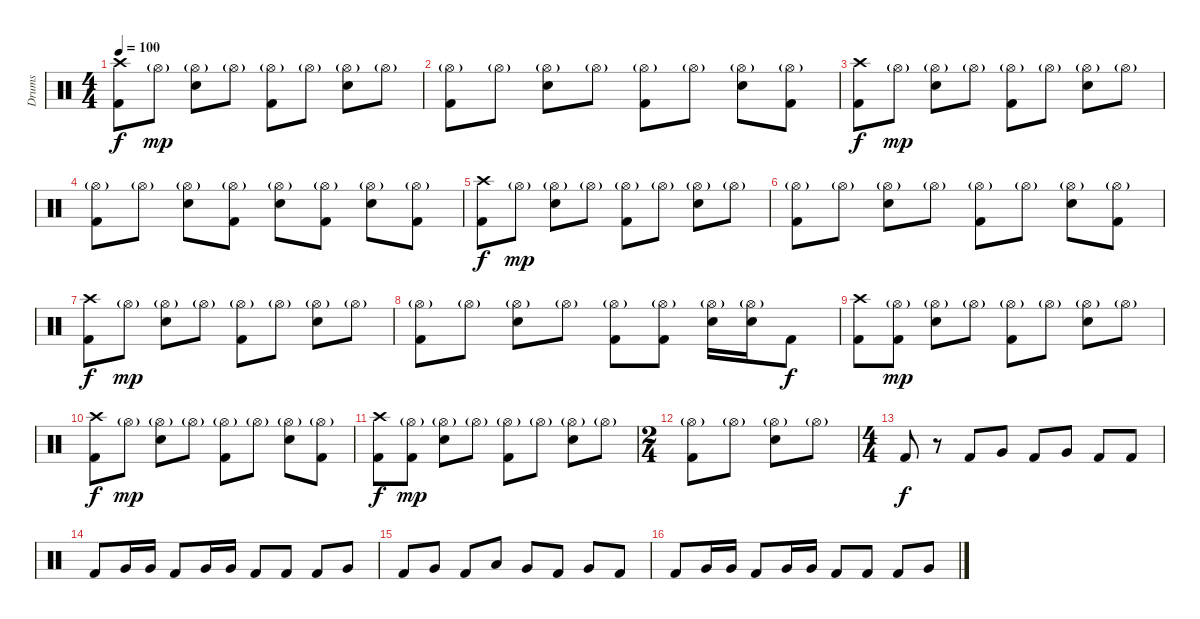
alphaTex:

\track ("Drums" "Drums") {instrument percussion}
\staff {score}
\articulation defaults
\ts (4 4)
\tempo 100
\clef neutral
\ks c
("Crash high (hit)" "Kick (hit) 2").8{dy f} "Hi-Hat (open)"{g}.8{dy mp} ("Snare (hit) 2" "Hi-Hat (open)"{g}).8 "Hi-Hat (open)"{g}.8 ("Hi-Hat (open)"{g} "Kick (hit) 2").8 "Hi-Hat (open)"{g}.8 ("Snare (hit) 2" "Hi-Hat (open)"{g}).8 "Hi-Hat (open)"{g}.8 |
("Hi-Hat (open)"{g} "Kick (hit) 2").8 "Hi-Hat (open)"{g}.8 ("Snare (hit) 2" "Hi-Hat (open)"{g}).8 "Hi-Hat (open)"{g}.8 ("Hi-Hat (open)"{g} "Kick (hit) 2").8 "Hi-Hat (open)"{g}.8 ("Snare (hit) 2" "Hi-Hat (open)"{g}).8 ("Hi-Hat (open)"{g} "Kick (hit) 2").8 |
("Crash high (hit)" "Kick (hit) 2").8{dy f} "Hi-Hat (open)"{g}.8{dy mp} ("Snare (hit) 2" "Hi-Hat (open)"{g}).8 "Hi-Hat (open)"{g}.8 ("Hi-Hat (open)"{g} "Kick (hit) 2").8 "Hi-Hat (open)"{g}.8 ("Snare (hit) 2" "Hi-Hat (open)"{g}).8 "Hi-Hat (open)"{g}.8 |
("Hi-Hat (open)"{g} "Kick (hit) 2").8 "Hi-Hat (open)"{g}.8 ("Snare (hit) 2" "Hi-Hat (open)"{g}).8 ("Hi-Hat (open)"{g} "Kick (hit) 2").8 ("Snare (hit) 2" "Hi-Hat (open)"{g}).8 ("Hi-Hat (open)"{g} "Kick (hit) 2").8 ("Snare (hit) 2" "Hi-Hat (open)"{g}).8 ("Hi-Hat (open)"{g} "Kick (hit) 2").8 |
("Crash high (hit)" "Kick (hit) 2").8{dy f} "Hi-Hat (open)"{g}.8{dy mp} ("Snare (hit) 2" "Hi-Hat (open)"{g}).8 "Hi-Hat (open)"{g}.8 ("Hi-Hat (open)"{g} "Kick (hit) 2").8 "Hi-Hat (open)"{g}.8 ("Snare (hit) 2" "Hi-Hat (open)"{g}).8 "Hi-Hat (open)"{g}.8 |
("Hi-Hat (open)"{g} "Kick (hit) 2").8 "Hi-Hat (open)"{g}.8 ("Snare (hit) 2" "Hi-Hat (open)"{g}).8 "Hi-Hat (open)"{g}.8 ("Hi-Hat (open)"{g} "Kick (hit) 2").8 "Hi-Hat (open)"{g}.8 ("Snare (hit) 2" "Hi-Hat (open)"{g}).8 ("Hi-Hat (open)"{g} "Kick (hit) 2").8 |
("Crash high (hit)" "Kick (hit) 2").8{dy f} "Hi-Hat (open)"{g}.8{dy mp} ("Snare (hit) 2" "Hi-Hat (open)"{g}).8 "Hi-Hat (open)"{g}.8 ("Hi-Hat (open)"{g} "Kick (hit) 2").8 "Hi-Hat (open)"{g}.8 ("Snare (hit) 2" "Hi-Hat (open)"{g}).8 "Hi-Hat (open)"{g}.8 |
("Hi-Hat (open)"{g} "Kick (hit) 2").8 "Hi-Hat (open)"{g}.8 ("Snare (hit) 2" "Hi-Hat (open)"{g}).8 "Hi-Hat (open)"{g}.8 ("Hi-Hat (open)"{g} "Kick (hit) 2").8 ("Hi-Hat (open)"{g} "Kick (hit) 2").8 ("Snare (hit) 2" "Hi-Hat (open)"{g}).16 ("Snare (hit) 2" "Hi-Hat (open)"{g}).16 "Kick (hit) 2".8{dy f} |
("Crash high (hit)" "Kick (hit) 2").8 ("Hi-Hat (open)"{g} "Kick (hit) 2").8{dy mp} ("Snare (hit) 2" "Hi-Hat (open)"{g}).8 "Hi-Hat (open)"{g}.8 ("Hi-Hat (open)"{g} "Kick (hit) 2").8 "Hi-Hat (open)"{g}.8 ("Snare (hit) 2" "Hi-Hat (open)"{g}).8 "Hi-Hat (open)"{g}.8 |
("Crash high (hit)" "Kick (hit) 2").8{dy f} "Hi-Hat (open)"{g}.8{dy mp} ("Snare (hit) 2" "Hi-Hat (open)"{g}).8 "Hi-Hat (open)"{g}.8 ("Hi-Hat (open)"{g} "Kick (hit) 2").8 "Hi-Hat (open)"{g}.8 ("Snare (hit) 2" "Hi-Hat (open)"{g}).8 ("Hi-Hat (open)"{g} "Kick (hit) 2").8 |
("Crash high (hit)" "Kick (hit) 2").8{dy f} ("Hi-Hat (open)"{g} "Kick (hit) 2").8{dy mp} ("Snare (hit) 2" "Hi-Hat (open)"{g}).8 "Hi-Hat (open)"{g}.8 ("Hi-Hat (open)"{g} "Kick (hit) 2").8 "Hi-Hat (open)"{g}.8 ("Snare (hit) 2" "Hi-Hat (open)"{g}).8 "Hi-Hat (open)"{g}.8 |
\ts (2 4)
("Hi-Hat (open)"{g} "Kick (hit) 2").8 "Hi-Hat (open)"{g}.8 ("Snare (hit) 2" "Hi-Hat (open)"{g}).8 "Hi-Hat (open)"{g}.8 |
\ts (4 4)
"Kick (hit) 2".8{dy f} r.8 "Kick (hit) 2".8 "Very Low Tom (hit)".8 "Kick (hit) 2".8 "Very Low Tom (hit)".8 "Kick (hit) 2".8 "Kick (hit) 2".8 |
"Kick (hit) 2".8 "Very Low Tom (hit)".16 "Very Low Tom (hit)".16 "Kick (hit) 2".8 "Very Low Tom (hit)".16 "Very Low Tom (hit)".16 "Kick (hit) 2".8 "Kick (hit) 2".8 "Kick (hit) 2".8 "Very Low Tom (hit)".8 |
"Kick (hit) 2".8 "Very Low Tom (hit)".8 "Kick (hit) 2".8 "Low Tom (hit)".8 "Very Low Tom (hit)".8 "Kick (hit) 2".8 "Very Low Tom (hit)".8 "Kick (hit) 2".8 |
"Kick (hit) 2".8 "Very Low Tom (hit)".16 "Very Low Tom (hit)".16 "Kick (hit) 2".8 "Very Low Tom (hit)".16 "Very Low Tom (hit)".16 "Kick (hit) 2".8 "Kick (hit) 2".8 "Kick (hit) 2".8 "Very Low Tom (hit)".8
